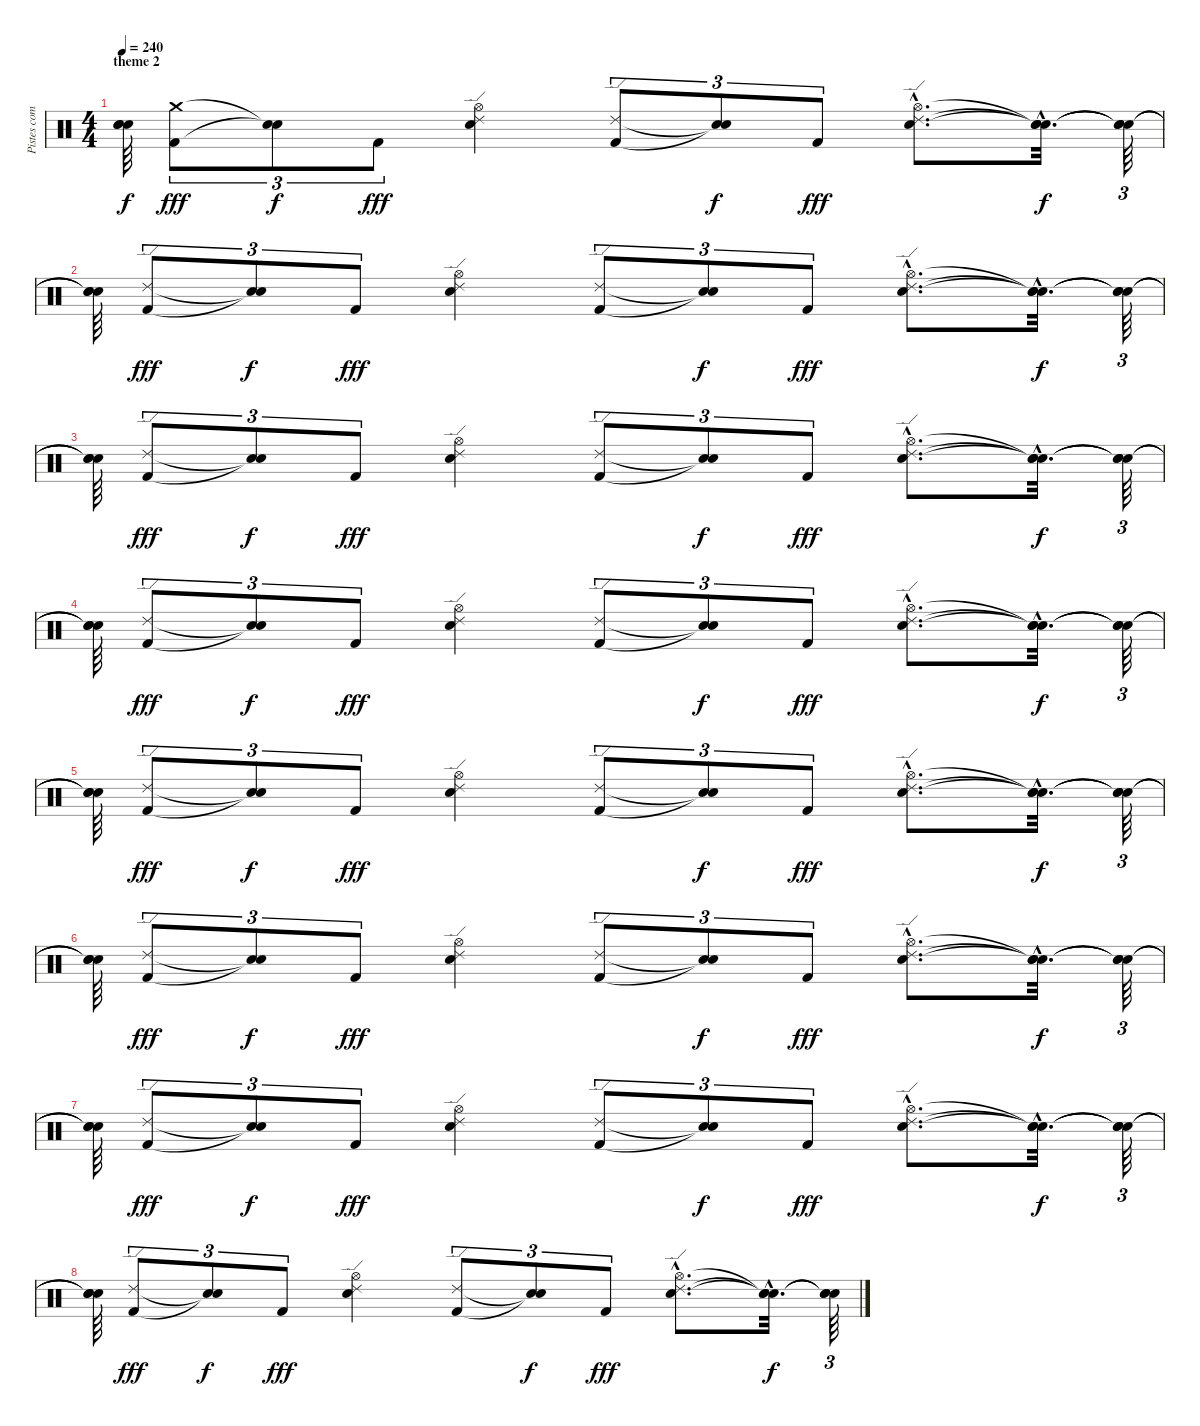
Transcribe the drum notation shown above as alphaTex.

\track ("Pistes combinées" "Pistes com") {instrument percussion}
\staff {score}
\articulation defaults
\ts (4 4)
\section ("" "theme 2")
\tempo 240
\clef neutral
\ks c
("Snare (hit)"{t} "Snare (hit)"{t} "Snare (hit)"{t}).64{dy f} ("Kick (hit) 2" "Crash medium (hit)").8{tu (3 2) dy fff} ("Snare (hit)"{t} "Snare (hit)"{t}).8{tu (3 2) dy f} "Kick (hit) 2".8{tu (3 2) dy fff} ("Electric Snare (hit)" "Ride (edge) 2" "Hi-Hat (open)").4 ("Kick (hit) 2" "Ride (edge) 2").8{tu (3 2)} ("Snare (hit)"{t} "Snare (hit)"{t}).8{tu (3 2) dy f} "Kick (hit) 2".8{tu (3 2) dy fff} ("Electric Snare (hit)"{hac} "Ride (edge) 2"{hac} "Hi-Hat (open)"{hac}).8{d} ("Snare (hit)"{hac t} "Snare (hit)"{hac t} "Snare (hit)"{hac t}).32{d dy f} ("Snare (hit)"{t} "Snare (hit)"{t} "Snare (hit)"{t}).64{tu (3 2)} |
("Snare (hit)"{t} "Snare (hit)"{t} "Snare (hit)"{t}).64 ("Kick (hit) 2" "Ride (edge) 2").8{tu (3 2) dy fff} ("Snare (hit)"{t} "Snare (hit)"{t}).8{tu (3 2) dy f} "Kick (hit) 2".8{tu (3 2) dy fff} ("Electric Snare (hit)" "Ride (edge) 2" "Hi-Hat (open)").4 ("Kick (hit) 2" "Ride (edge) 2").8{tu (3 2)} ("Snare (hit)"{t} "Snare (hit)"{t}).8{tu (3 2) dy f} "Kick (hit) 2".8{tu (3 2) dy fff} ("Electric Snare (hit)"{hac} "Ride (edge) 2"{hac} "Hi-Hat (open)"{hac}).8{d} ("Snare (hit)"{hac t} "Snare (hit)"{hac t} "Snare (hit)"{hac t}).32{d dy f} ("Snare (hit)"{t} "Snare (hit)"{t} "Snare (hit)"{t}).64{tu (3 2)} |
("Snare (hit)"{t} "Snare (hit)"{t} "Snare (hit)"{t}).64 ("Kick (hit) 2" "Ride (edge) 2").8{tu (3 2) dy fff} ("Snare (hit)"{t} "Snare (hit)"{t}).8{tu (3 2) dy f} "Kick (hit) 2".8{tu (3 2) dy fff} ("Electric Snare (hit)" "Ride (edge) 2" "Hi-Hat (open)").4 ("Kick (hit) 2" "Ride (edge) 2").8{tu (3 2)} ("Snare (hit)"{t} "Snare (hit)"{t}).8{tu (3 2) dy f} "Kick (hit) 2".8{tu (3 2) dy fff} ("Electric Snare (hit)"{hac} "Ride (edge) 2"{hac} "Hi-Hat (open)"{hac}).8{d} ("Snare (hit)"{hac t} "Snare (hit)"{hac t} "Snare (hit)"{hac t}).32{d dy f} ("Snare (hit)"{t} "Snare (hit)"{t} "Snare (hit)"{t}).64{tu (3 2)} |
("Snare (hit)"{t} "Snare (hit)"{t} "Snare (hit)"{t}).64 ("Kick (hit) 2" "Ride (edge) 2").8{tu (3 2) dy fff} ("Snare (hit)"{t} "Snare (hit)"{t}).8{tu (3 2) dy f} "Kick (hit) 2".8{tu (3 2) dy fff} ("Electric Snare (hit)" "Ride (edge) 2" "Hi-Hat (open)").4 ("Kick (hit) 2" "Ride (edge) 2").8{tu (3 2)} ("Snare (hit)"{t} "Snare (hit)"{t}).8{tu (3 2) dy f} "Kick (hit) 2".8{tu (3 2) dy fff} ("Electric Snare (hit)"{hac} "Ride (edge) 2"{hac} "Hi-Hat (open)"{hac}).8{d} ("Snare (hit)"{hac t} "Snare (hit)"{hac t} "Snare (hit)"{hac t}).32{d dy f} ("Snare (hit)"{t} "Snare (hit)"{t} "Snare (hit)"{t}).64{tu (3 2)} |
("Snare (hit)"{t} "Snare (hit)"{t} "Snare (hit)"{t}).64 ("Kick (hit) 2" "Ride (edge) 2").8{tu (3 2) dy fff} ("Snare (hit)"{t} "Snare (hit)"{t}).8{tu (3 2) dy f} "Kick (hit) 2".8{tu (3 2) dy fff} ("Electric Snare (hit)" "Ride (edge) 2" "Hi-Hat (open)").4 ("Kick (hit) 2" "Ride (edge) 2").8{tu (3 2)} ("Snare (hit)"{t} "Snare (hit)"{t}).8{tu (3 2) dy f} "Kick (hit) 2".8{tu (3 2) dy fff} ("Electric Snare (hit)"{hac} "Ride (edge) 2"{hac} "Hi-Hat (open)"{hac}).8{d} ("Snare (hit)"{hac t} "Snare (hit)"{hac t} "Snare (hit)"{hac t}).32{d dy f} ("Snare (hit)"{t} "Snare (hit)"{t} "Snare (hit)"{t}).64{tu (3 2)} |
("Snare (hit)"{t} "Snare (hit)"{t} "Snare (hit)"{t}).64 ("Kick (hit) 2" "Ride (edge) 2").8{tu (3 2) dy fff} ("Snare (hit)"{t} "Snare (hit)"{t}).8{tu (3 2) dy f} "Kick (hit) 2".8{tu (3 2) dy fff} ("Electric Snare (hit)" "Ride (edge) 2" "Hi-Hat (open)").4 ("Kick (hit) 2" "Ride (edge) 2").8{tu (3 2)} ("Snare (hit)"{t} "Snare (hit)"{t}).8{tu (3 2) dy f} "Kick (hit) 2".8{tu (3 2) dy fff} ("Electric Snare (hit)"{hac} "Ride (edge) 2"{hac} "Hi-Hat (open)"{hac}).8{d} ("Snare (hit)"{hac t} "Snare (hit)"{hac t} "Snare (hit)"{hac t}).32{d dy f} ("Snare (hit)"{t} "Snare (hit)"{t} "Snare (hit)"{t}).64{tu (3 2)} |
("Snare (hit)"{t} "Snare (hit)"{t} "Snare (hit)"{t}).64 ("Kick (hit) 2" "Ride (edge) 2").8{tu (3 2) dy fff} ("Snare (hit)"{t} "Snare (hit)"{t}).8{tu (3 2) dy f} "Kick (hit) 2".8{tu (3 2) dy fff} ("Electric Snare (hit)" "Ride (edge) 2" "Hi-Hat (open)").4 ("Kick (hit) 2" "Ride (edge) 2").8{tu (3 2)} ("Snare (hit)"{t} "Snare (hit)"{t}).8{tu (3 2) dy f} "Kick (hit) 2".8{tu (3 2) dy fff} ("Electric Snare (hit)"{hac} "Ride (edge) 2"{hac} "Hi-Hat (open)"{hac}).8{d} ("Snare (hit)"{hac t} "Snare (hit)"{hac t} "Snare (hit)"{hac t}).32{d dy f} ("Snare (hit)"{t} "Snare (hit)"{t} "Snare (hit)"{t}).64{tu (3 2)} |
("Snare (hit)"{t} "Snare (hit)"{t} "Snare (hit)"{t}).64 ("Kick (hit) 2" "Ride (edge) 2").8{tu (3 2) dy fff} ("Snare (hit)"{t} "Snare (hit)"{t}).8{tu (3 2) dy f} "Kick (hit) 2".8{tu (3 2) dy fff} ("Electric Snare (hit)" "Ride (edge) 2" "Hi-Hat (open)").4 ("Kick (hit) 2" "Ride (edge) 2").8{tu (3 2)} ("Snare (hit)"{t} "Snare (hit)"{t}).8{tu (3 2) dy f} "Kick (hit) 2".8{tu (3 2) dy fff} ("Electric Snare (hit)"{hac} "Ride (edge) 2"{hac} "Hi-Hat (open)"{hac}).8{d} ("Snare (hit)"{hac t} "Snare (hit)"{hac t} "Snare (hit)"{hac t}).32{d dy f} ("Snare (hit)"{t} "Snare (hit)"{t} "Snare (hit)"{t}).64{tu (3 2)}
